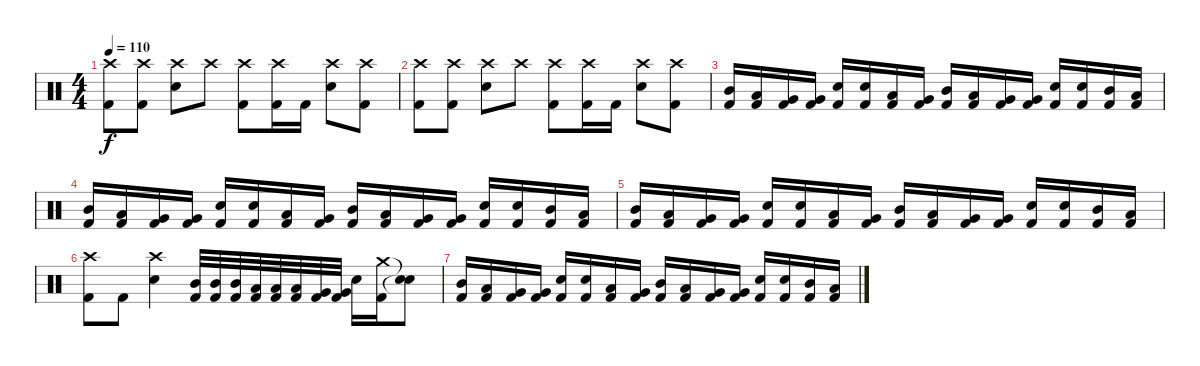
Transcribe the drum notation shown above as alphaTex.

\track "" {instrument percussion}
\staff {score}
\articulation defaults
\ts (4 4)
\tempo 110
\clef neutral
\ks c
("Crash high (hit)" "Kick (hit) 2").8{dy f} ("Crash high (hit)" "Kick (hit) 2").8 ("Crash high (hit)" "Electric Snare (hit)").8 "Crash high (hit)".8 ("Crash high (hit)" "Kick (hit) 2").8 ("Crash high (hit)" "Kick (hit) 2").16 "Kick (hit) 2".16 ("Crash high (hit)" "Electric Snare (hit)").8 ("Crash high (hit)" "Kick (hit) 2").8 |
("Crash high (hit)" "Kick (hit) 2").8 ("Crash high (hit)" "Kick (hit) 2").8 ("Crash high (hit)" "Electric Snare (hit)").8 "Crash high (hit)".8 ("Crash high (hit)" "Kick (hit) 2").8 ("Crash high (hit)" "Kick (hit) 2").16 "Kick (hit) 2".16 ("Crash high (hit)" "Electric Snare (hit)").8 ("Crash high (hit)" "Kick (hit) 2").8 |
("Kick (hit) 2" "Mid Tom (hit)").16 ("Kick (hit) 2" "Low Tom (hit)").16 ("Kick (hit) 2" "Very Low Tom (hit)").16 ("Kick (hit) 2" "Very Low Tom (hit)").16 ("Kick (hit) 2" "Electric Snare (hit)").16 ("Kick (hit) 2" "Electric Snare (hit)").16 ("Kick (hit) 2" "Low Tom (hit)").16 ("Kick (hit) 2" "Very Low Tom (hit)").16 ("Kick (hit) 2" "Mid Tom (hit)").16 ("Kick (hit) 2" "Low Tom (hit)").16 ("Kick (hit) 2" "Very Low Tom (hit)").16 ("Kick (hit) 2" "Very Low Tom (hit)").16 ("Kick (hit) 2" "Electric Snare (hit)").16 ("Kick (hit) 2" "Electric Snare (hit)").16 ("Kick (hit) 2" "Mid Tom (hit)").16 ("Kick (hit) 2" "Low Tom (hit)").16 |
("Kick (hit) 2" "Mid Tom (hit)").16 ("Kick (hit) 2" "Low Tom (hit)").16 ("Kick (hit) 2" "Very Low Tom (hit)").16 ("Kick (hit) 2" "Very Low Tom (hit)").16 ("Kick (hit) 2" "Electric Snare (hit)").16 ("Kick (hit) 2" "Electric Snare (hit)").16 ("Kick (hit) 2" "Low Tom (hit)").16 ("Kick (hit) 2" "Very Low Tom (hit)").16 ("Kick (hit) 2" "Mid Tom (hit)").16 ("Kick (hit) 2" "Low Tom (hit)").16 ("Kick (hit) 2" "Very Low Tom (hit)").16 ("Kick (hit) 2" "Very Low Tom (hit)").16 ("Kick (hit) 2" "Electric Snare (hit)").16 ("Kick (hit) 2" "Electric Snare (hit)").16 ("Kick (hit) 2" "Mid Tom (hit)").16 ("Kick (hit) 2" "Low Tom (hit)").16 |
("Kick (hit) 2" "Mid Tom (hit)").16 ("Kick (hit) 2" "Low Tom (hit)").16 ("Kick (hit) 2" "Very Low Tom (hit)").16 ("Kick (hit) 2" "Very Low Tom (hit)").16 ("Kick (hit) 2" "Electric Snare (hit)").16 ("Kick (hit) 2" "Electric Snare (hit)").16 ("Kick (hit) 2" "Low Tom (hit)").16 ("Kick (hit) 2" "Very Low Tom (hit)").16 ("Kick (hit) 2" "Mid Tom (hit)").16 ("Kick (hit) 2" "Low Tom (hit)").16 ("Kick (hit) 2" "Very Low Tom (hit)").16 ("Kick (hit) 2" "Very Low Tom (hit)").16 ("Kick (hit) 2" "Electric Snare (hit)").16 ("Kick (hit) 2" "Electric Snare (hit)").16 ("Kick (hit) 2" "Mid Tom (hit)").16 ("Kick (hit) 2" "Low Tom (hit)").16 |
("Kick (hit) 2" "Crash high (hit)").8 "Kick (hit) 2".8 ("Electric Snare (hit)" "Crash high (hit)").4 ("Mid Tom (hit)" "Kick (hit) 2").32 ("Mid Tom (hit)" "Kick (hit) 2").32 ("Mid Tom (hit)" "Kick (hit) 2").32 ("Low Tom (hit)" "Kick (hit) 2").32 ("Low Tom (hit)" "Kick (hit) 2").32 ("Low Tom (hit)" "Kick (hit) 2").32 ("Very Low Tom (hit)" "Kick (hit) 2").32 ("Very Low Tom (hit)" "Kick (hit) 2").32 "Electric Snare (hit)".16 ("Crash medium (hit)" "Kick (hit) 2").16 ("Snare (hit)"{t} "Snare (hit)"{t}).8 |
("Kick (hit) 2" "Mid Tom (hit)").16 ("Kick (hit) 2" "Low Tom (hit)").16 ("Kick (hit) 2" "Very Low Tom (hit)").16 ("Kick (hit) 2" "Very Low Tom (hit)").16 ("Kick (hit) 2" "Electric Snare (hit)").16 ("Kick (hit) 2" "Electric Snare (hit)").16 ("Kick (hit) 2" "Low Tom (hit)").16 ("Kick (hit) 2" "Very Low Tom (hit)").16 ("Kick (hit) 2" "Mid Tom (hit)").16 ("Kick (hit) 2" "Low Tom (hit)").16 ("Kick (hit) 2" "Very Low Tom (hit)").16 ("Kick (hit) 2" "Very Low Tom (hit)").16 ("Kick (hit) 2" "Electric Snare (hit)").16 ("Kick (hit) 2" "Electric Snare (hit)").16 ("Kick (hit) 2" "Mid Tom (hit)").16 ("Kick (hit) 2" "Low Tom (hit)").16
